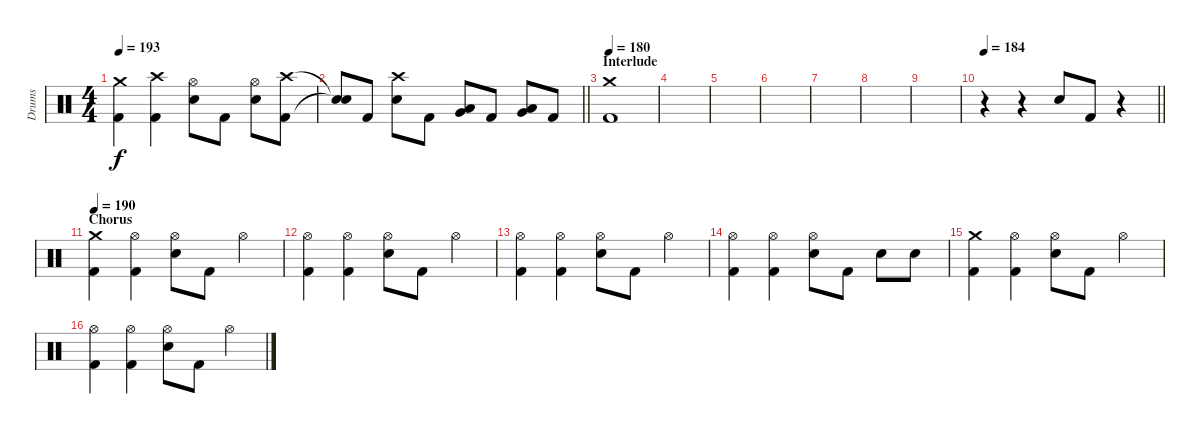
\track ("Drums" "Drums") {instrument percussion}
\staff {score}
\articulation defaults
\ts (4 4)
\tempo 193
\clef neutral
\ks c
("Crash medium (hit)" "Kick (hit) 2").4{dy f} ("Crash high (hit)" "Kick (hit) 2").4 ("Hi-Hat (open)" "Electric Snare (hit)").8 "Kick (hit) 2".8 ("Hi-Hat (open)" "Electric Snare (hit)").8 ("Crash high (hit)" "Kick (hit) 2").8 |
\barLineRight lightlight
("Snare (hit)"{t} "Snare (hit)"{t}).8 "Kick (hit) 2".8 ("Crash high (hit)" "Electric Snare (hit)").8 "Kick (hit) 2".8 ("Low Tom (hit)" "Very Low Tom (hit)").8 "Kick (hit) 2".8 ("Very Low Tom (hit)" "Low Floor Tom (hit)").8 "Kick (hit) 2".8 |
\section ("" "Interlude")
\tempo 180
("Crash medium (hit)" "Kick (hit) 2").1 |
|
|
|
|
|
|
\tempo 184
\barLineRight lightlight
r.4 r.4 "Electric Snare (hit)".8 "Kick (hit) 2".8 r.4 |
\section ("" "Chorus")
\tempo 190
("Crash medium (hit)" "Kick (hit) 2").4 ("Hi-Hat (open)" "Kick (hit) 2").4 ("Hi-Hat (open)" "Electric Snare (hit)").8 "Kick (hit) 2".8 "Hi-Hat (open)".4 |
("Hi-Hat (open)" "Kick (hit) 2").4 ("Hi-Hat (open)" "Kick (hit) 2").4 ("Hi-Hat (open)" "Electric Snare (hit)").8 "Kick (hit) 2".8 "Hi-Hat (open)".4 |
("Hi-Hat (open)" "Kick (hit) 2").4 ("Hi-Hat (open)" "Kick (hit) 2").4 ("Hi-Hat (open)" "Electric Snare (hit)").8 "Kick (hit) 2".8 "Hi-Hat (open)".4 |
("Hi-Hat (open)" "Kick (hit) 2").4 ("Hi-Hat (open)" "Kick (hit) 2").4 ("Hi-Hat (open)" "Electric Snare (hit)").8 "Kick (hit) 2".8 "Electric Snare (hit)".8 "Electric Snare (hit)".8 |
("Crash medium (hit)" "Kick (hit) 2").4 ("Hi-Hat (open)" "Kick (hit) 2").4 ("Hi-Hat (open)" "Electric Snare (hit)").8 "Kick (hit) 2".8 "Hi-Hat (open)".4 |
("Hi-Hat (open)" "Kick (hit) 2").4 ("Hi-Hat (open)" "Kick (hit) 2").4 ("Hi-Hat (open)" "Electric Snare (hit)").8 "Kick (hit) 2".8 "Hi-Hat (open)".4
